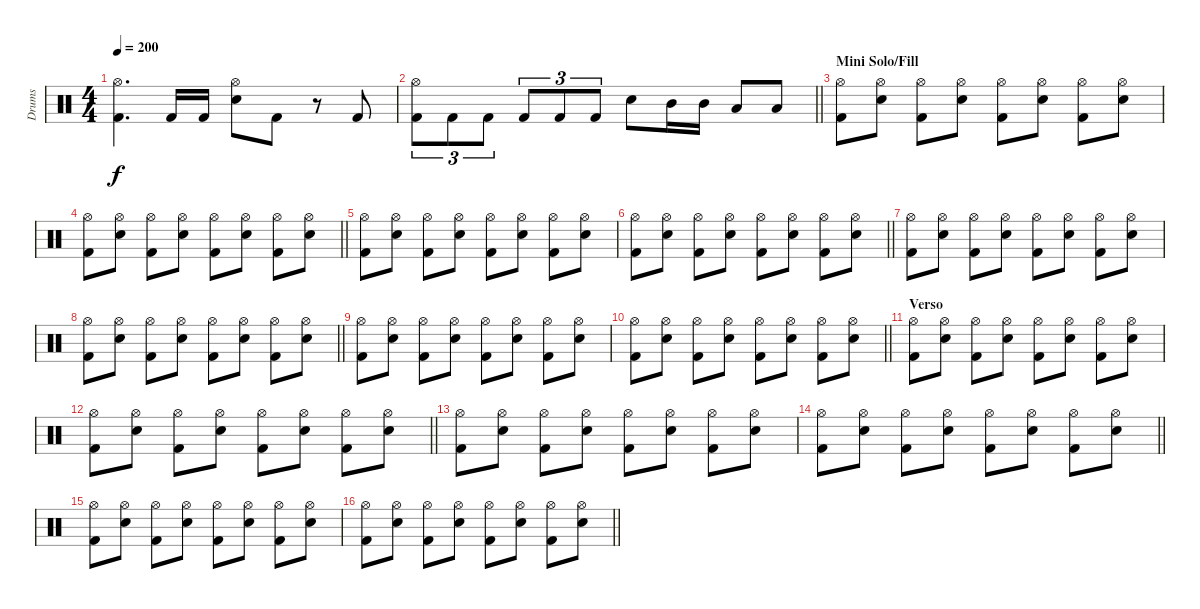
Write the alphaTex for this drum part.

\track ("Drums" "Drums") {instrument percussion}
\staff {score}
\articulation defaults
\ts (4 4)
\tempo 200
\clef neutral
\ks c
("Hi-Hat (open)" "Kick (hit) 2").4{d dy f} "Kick (hit) 2".16 "Kick (hit) 2".16 ("Hi-Hat (open)" "Electric Snare (hit)").8 "Kick (hit) 2".8 r.8 "Kick (hit) 2".8 |
\barLineRight lightlight
("Hi-Hat (open)" "Kick (hit) 2").8{tu (3 2)} "Kick (hit) 2".8{tu (3 2)} "Kick (hit) 2".8{tu (3 2)} "Kick (hit) 2".8{tu (3 2)} "Kick (hit) 2".8{tu (3 2)} "Kick (hit) 2".8{tu (3 2)} "Electric Snare (hit)".8 "Mid Tom (hit)".16 "Mid Tom (hit)".16 "Low Tom (hit)".8 "Low Tom (hit)".8 |
\section ("" "Mini Solo/Fill")
("Hi-Hat (open)" "Kick (hit) 2").8 ("Hi-Hat (open)" "Electric Snare (hit)").8 ("Hi-Hat (open)" "Kick (hit) 2").8 ("Hi-Hat (open)" "Electric Snare (hit)").8 ("Hi-Hat (open)" "Kick (hit) 2").8 ("Hi-Hat (open)" "Electric Snare (hit)").8 ("Hi-Hat (open)" "Kick (hit) 2").8 ("Hi-Hat (open)" "Electric Snare (hit)").8 |
\barLineRight lightlight
("Hi-Hat (open)" "Kick (hit) 2").8 ("Hi-Hat (open)" "Electric Snare (hit)").8 ("Hi-Hat (open)" "Kick (hit) 2").8 ("Hi-Hat (open)" "Electric Snare (hit)").8 ("Hi-Hat (open)" "Kick (hit) 2").8 ("Hi-Hat (open)" "Electric Snare (hit)").8 ("Hi-Hat (open)" "Kick (hit) 2").8 ("Hi-Hat (open)" "Electric Snare (hit)").8 |
("Hi-Hat (open)" "Kick (hit) 2").8 ("Hi-Hat (open)" "Electric Snare (hit)").8 ("Hi-Hat (open)" "Kick (hit) 2").8 ("Hi-Hat (open)" "Electric Snare (hit)").8 ("Hi-Hat (open)" "Kick (hit) 2").8 ("Hi-Hat (open)" "Electric Snare (hit)").8 ("Hi-Hat (open)" "Kick (hit) 2").8 ("Hi-Hat (open)" "Electric Snare (hit)").8 |
\barLineRight lightlight
("Hi-Hat (open)" "Kick (hit) 2").8 ("Hi-Hat (open)" "Electric Snare (hit)").8 ("Hi-Hat (open)" "Kick (hit) 2").8 ("Hi-Hat (open)" "Electric Snare (hit)").8 ("Hi-Hat (open)" "Kick (hit) 2").8 ("Hi-Hat (open)" "Electric Snare (hit)").8 ("Hi-Hat (open)" "Kick (hit) 2").8 ("Hi-Hat (open)" "Electric Snare (hit)").8 |
("Hi-Hat (open)" "Kick (hit) 2").8 ("Hi-Hat (open)" "Electric Snare (hit)").8 ("Hi-Hat (open)" "Kick (hit) 2").8 ("Hi-Hat (open)" "Electric Snare (hit)").8 ("Hi-Hat (open)" "Kick (hit) 2").8 ("Hi-Hat (open)" "Electric Snare (hit)").8 ("Hi-Hat (open)" "Kick (hit) 2").8 ("Hi-Hat (open)" "Electric Snare (hit)").8 |
\barLineRight lightlight
("Hi-Hat (open)" "Kick (hit) 2").8 ("Hi-Hat (open)" "Electric Snare (hit)").8 ("Hi-Hat (open)" "Kick (hit) 2").8 ("Hi-Hat (open)" "Electric Snare (hit)").8 ("Hi-Hat (open)" "Kick (hit) 2").8 ("Hi-Hat (open)" "Electric Snare (hit)").8 ("Hi-Hat (open)" "Kick (hit) 2").8 ("Hi-Hat (open)" "Electric Snare (hit)").8 |
("Hi-Hat (open)" "Kick (hit) 2").8 ("Hi-Hat (open)" "Electric Snare (hit)").8 ("Hi-Hat (open)" "Kick (hit) 2").8 ("Hi-Hat (open)" "Electric Snare (hit)").8 ("Hi-Hat (open)" "Kick (hit) 2").8 ("Hi-Hat (open)" "Electric Snare (hit)").8 ("Hi-Hat (open)" "Kick (hit) 2").8 ("Hi-Hat (open)" "Electric Snare (hit)").8 |
\barLineRight lightlight
("Hi-Hat (open)" "Kick (hit) 2").8 ("Hi-Hat (open)" "Electric Snare (hit)").8 ("Hi-Hat (open)" "Kick (hit) 2").8 ("Hi-Hat (open)" "Electric Snare (hit)").8 ("Hi-Hat (open)" "Kick (hit) 2").8 ("Hi-Hat (open)" "Electric Snare (hit)").8 ("Hi-Hat (open)" "Kick (hit) 2").8 ("Hi-Hat (open)" "Electric Snare (hit)").8 |
\section ("" "Verso")
("Hi-Hat (open)" "Kick (hit) 2").8 ("Hi-Hat (open)" "Electric Snare (hit)").8 ("Hi-Hat (open)" "Kick (hit) 2").8 ("Hi-Hat (open)" "Electric Snare (hit)").8 ("Hi-Hat (open)" "Kick (hit) 2").8 ("Hi-Hat (open)" "Electric Snare (hit)").8 ("Hi-Hat (open)" "Kick (hit) 2").8 ("Hi-Hat (open)" "Electric Snare (hit)").8 |
\barLineRight lightlight
("Hi-Hat (open)" "Kick (hit) 2").8 ("Hi-Hat (open)" "Electric Snare (hit)").8 ("Hi-Hat (open)" "Kick (hit) 2").8 ("Hi-Hat (open)" "Electric Snare (hit)").8 ("Hi-Hat (open)" "Kick (hit) 2").8 ("Hi-Hat (open)" "Electric Snare (hit)").8 ("Hi-Hat (open)" "Kick (hit) 2").8 ("Hi-Hat (open)" "Electric Snare (hit)").8 |
("Hi-Hat (open)" "Kick (hit) 2").8 ("Hi-Hat (open)" "Electric Snare (hit)").8 ("Hi-Hat (open)" "Kick (hit) 2").8 ("Hi-Hat (open)" "Electric Snare (hit)").8 ("Hi-Hat (open)" "Kick (hit) 2").8 ("Hi-Hat (open)" "Electric Snare (hit)").8 ("Hi-Hat (open)" "Kick (hit) 2").8 ("Hi-Hat (open)" "Electric Snare (hit)").8 |
\barLineRight lightlight
("Hi-Hat (open)" "Kick (hit) 2").8 ("Hi-Hat (open)" "Electric Snare (hit)").8 ("Hi-Hat (open)" "Kick (hit) 2").8 ("Hi-Hat (open)" "Electric Snare (hit)").8 ("Hi-Hat (open)" "Kick (hit) 2").8 ("Hi-Hat (open)" "Electric Snare (hit)").8 ("Hi-Hat (open)" "Kick (hit) 2").8 ("Hi-Hat (open)" "Electric Snare (hit)").8 |
("Hi-Hat (open)" "Kick (hit) 2").8 ("Hi-Hat (open)" "Electric Snare (hit)").8 ("Hi-Hat (open)" "Kick (hit) 2").8 ("Hi-Hat (open)" "Electric Snare (hit)").8 ("Hi-Hat (open)" "Kick (hit) 2").8 ("Hi-Hat (open)" "Electric Snare (hit)").8 ("Hi-Hat (open)" "Kick (hit) 2").8 ("Hi-Hat (open)" "Electric Snare (hit)").8 |
\barLineRight lightlight
("Hi-Hat (open)" "Kick (hit) 2").8 ("Hi-Hat (open)" "Electric Snare (hit)").8 ("Hi-Hat (open)" "Kick (hit) 2").8 ("Hi-Hat (open)" "Electric Snare (hit)").8 ("Hi-Hat (open)" "Kick (hit) 2").8 ("Hi-Hat (open)" "Electric Snare (hit)").8 ("Hi-Hat (open)" "Kick (hit) 2").8 ("Hi-Hat (open)" "Electric Snare (hit)").8
